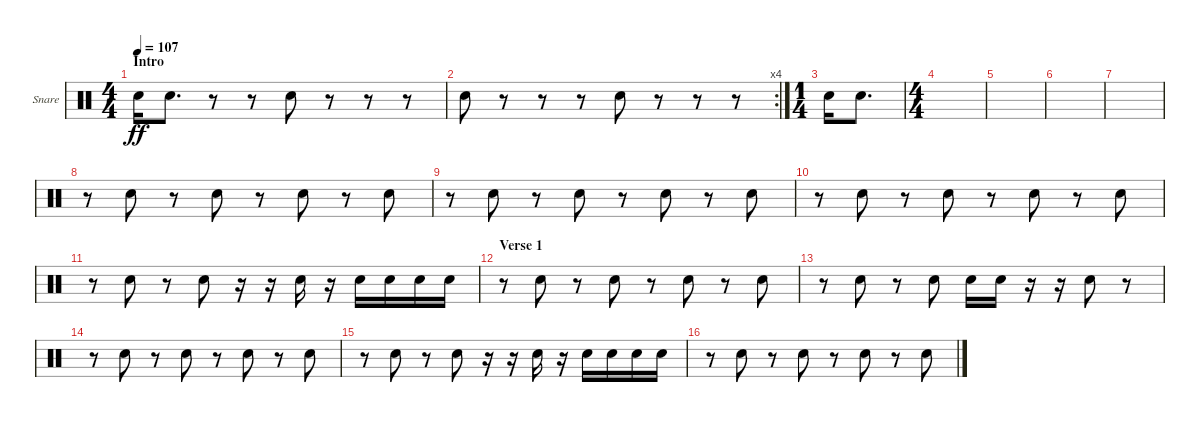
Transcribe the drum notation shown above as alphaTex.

\bracketExtendMode groupsimilarinstruments
\firstSystemTrackNameOrientation horizontal
\otherSystemsTrackNameOrientation horizontal
\track ("Snare" "Snare") {instrument percussion}
\staff {score}
\articulation defaults
\ts (4 4)
\section ("" "Intro")
\tempo 107
\clef neutral
\ks c "Snare (hit) 2".16{dy ff} "Snare (hit) 2".8{d}
r.8 r.8 "Snare (hit) 2".8 r.8 r.8 r.8 |
\rc 4 "Snare (hit) 2".8
r.8 r.8 r.8 "Snare (hit) 2".8 r.8 r.8 r.8 |
\ts (1 4)
"Snare (hit) 2".16 "Snare (hit) 2".8{d} |
\ts (4 4)
|
|
|
|
r.8 "Snare (hit) 2".8 r.8 "Snare (hit) 2".8 r.8 "Snare (hit) 2".8 r.8 "Snare (hit) 2".8 |
r.8 "Snare (hit) 2".8 r.8 "Snare (hit) 2".8 r.8 "Snare (hit) 2".8 r.8 "Snare (hit) 2".8 |
r.8 "Snare (hit) 2".8 r.8 "Snare (hit) 2".8 r.8 "Snare (hit) 2".8 r.8 "Snare (hit) 2".8 |
r.8 "Snare (hit) 2".8 r.8 "Snare (hit) 2".8 r.16 r.16 "Snare (hit) 2".16 r.16 "Snare (hit) 2".16 "Snare (hit) 2".16 "Snare (hit) 2".16 "Snare (hit) 2".16 |
\section ("" "Verse 1")
r.8 "Snare (hit) 2".8 r.8 "Snare (hit) 2".8 r.8 "Snare (hit) 2".8 r.8 "Snare (hit) 2".8 |
r.8 "Snare (hit) 2".8 r.8 "Snare (hit) 2".8 "Snare (hit) 2".16 "Snare (hit) 2".16 r.16 r.16 "Snare (hit) 2".8 r.8 |
r.8 "Snare (hit) 2".8 r.8 "Snare (hit) 2".8 r.8 "Snare (hit) 2".8 r.8 "Snare (hit) 2".8 |
r.8 "Snare (hit) 2".8 r.8 "Snare (hit) 2".8 r.16 r.16 "Snare (hit) 2".16 r.16 "Snare (hit) 2".16 "Snare (hit) 2".16 "Snare (hit) 2".16 "Snare (hit) 2".16 |
r.8 "Snare (hit) 2".8 r.8 "Snare (hit) 2".8 r.8 "Snare (hit) 2".8 r.8 "Snare (hit) 2".8
